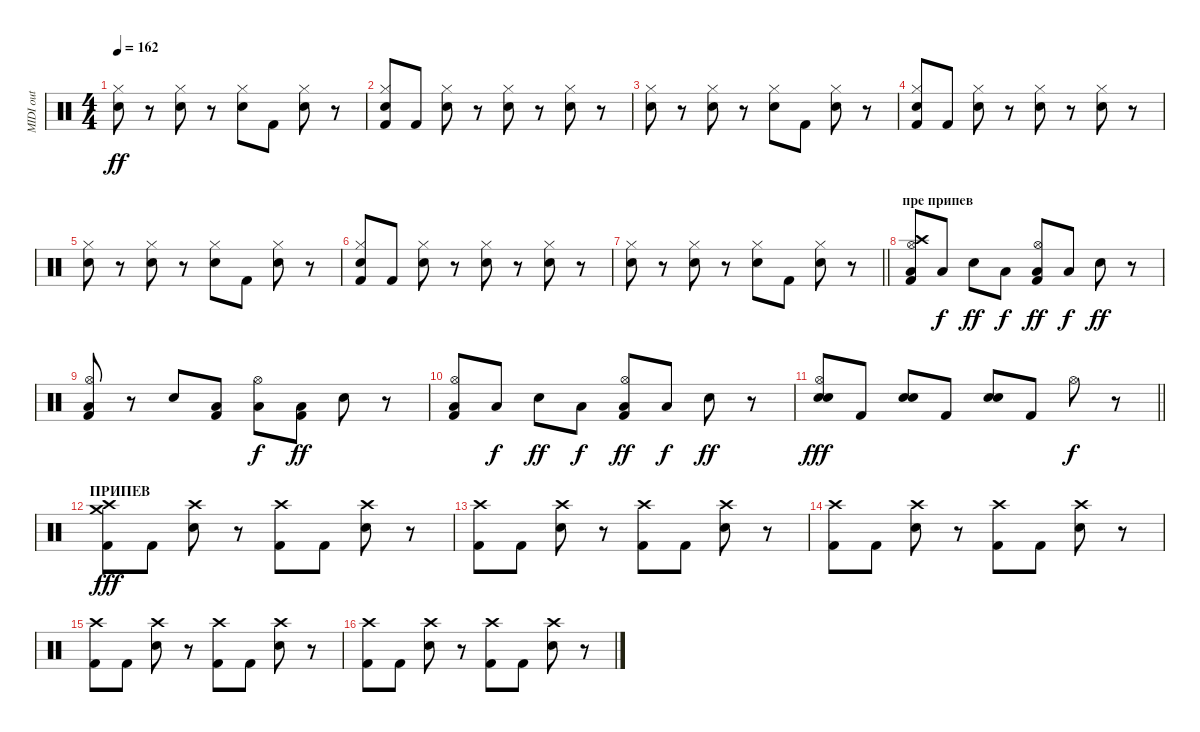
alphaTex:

\track ("MIDI out" "MIDI out") {instrument percussion}
\staff {score}
\articulation defaults
\ts (4 4)
\tempo 162
\clef neutral
\ks c
("Snare (hit) 2" "Hi-Hat (closed)").8{dy ff} r.8 ("Snare (hit) 2" "Hi-Hat (closed)").8 r.8 ("Snare (hit) 2" "Hi-Hat (closed)").8 "Kick (hit) 2".8 ("Snare (hit) 2" "Hi-Hat (closed)").8 r.8 |
("Snare (hit) 2" "Kick (hit) 2" "Hi-Hat (closed)").8 "Kick (hit) 2".8 ("Snare (hit) 2" "Hi-Hat (closed)").8 r.8 ("Snare (hit) 2" "Hi-Hat (closed)").8 r.8 ("Snare (hit) 2" "Hi-Hat (closed)").8 r.8 |
("Snare (hit) 2" "Hi-Hat (closed)").8 r.8 ("Snare (hit) 2" "Hi-Hat (closed)").8 r.8 ("Snare (hit) 2" "Hi-Hat (closed)").8 "Kick (hit) 2".8 ("Snare (hit) 2" "Hi-Hat (closed)").8 r.8 |
("Snare (hit) 2" "Kick (hit) 2" "Hi-Hat (closed)").8 "Kick (hit) 2".8 ("Snare (hit) 2" "Hi-Hat (closed)").8 r.8 ("Snare (hit) 2" "Hi-Hat (closed)").8 r.8 ("Snare (hit) 2" "Hi-Hat (closed)").8 r.8 |
("Snare (hit) 2" "Hi-Hat (closed)").8 r.8 ("Snare (hit) 2" "Hi-Hat (closed)").8 r.8 ("Snare (hit) 2" "Hi-Hat (closed)").8 "Kick (hit) 2".8 ("Snare (hit) 2" "Hi-Hat (closed)").8 r.8 |
("Snare (hit) 2" "Kick (hit) 2" "Hi-Hat (closed)").8 "Kick (hit) 2".8 ("Snare (hit) 2" "Hi-Hat (closed)").8 r.8 ("Snare (hit) 2" "Hi-Hat (closed)").8 r.8 ("Snare (hit) 2" "Hi-Hat (closed)").8 r.8 |
\barLineRight lightlight
("Snare (hit) 2" "Hi-Hat (closed)").8 r.8 ("Snare (hit) 2" "Hi-Hat (closed)").8 r.8 ("Snare (hit) 2" "Hi-Hat (closed)").8 "Kick (hit) 2".8 ("Snare (hit) 2" "Hi-Hat (closed)").8 r.8 |
\section ("" "пре припев")
("Crash high (hit)" "Hi-Hat (open)" "Low Floor Tom (hit)" "Kick (hit) 2").8 "Low Floor Tom (hit)".8{dy f} "Snare (hit) 2".8{dy ff} "Low Floor Tom (hit)".8{dy f} ("Hi-Hat (open)" "Low Floor Tom (hit)" "Kick (hit) 2").8{dy ff} "Low Floor Tom (hit)".8{dy f} "Snare (hit) 2".8{dy ff} r.8 |
("Hi-Hat (open)" "Kick (hit) 2" "Low Floor Tom (hit)").8 r.8 "Snare (hit) 2".8 ("Low Floor Tom (hit)" "Kick (hit) 2").8 ("Hi-Hat (open)" "Low Floor Tom (hit)").8{dy f} ("Low Floor Tom (hit)" "Kick (hit) 2").8{dy ff} "Snare (hit) 2".8 r.8 |
("Hi-Hat (open)" "Low Floor Tom (hit)" "Kick (hit) 2").8 "Low Floor Tom (hit)".8{dy f} "Snare (hit) 2".8{dy ff} "Low Floor Tom (hit)".8{dy f} ("Hi-Hat (open)" "Low Floor Tom (hit)" "Kick (hit) 2").8{dy ff} "Low Floor Tom (hit)".8{dy f} "Snare (hit) 2".8{dy ff} r.8 |
\barLineRight lightlight
("Electric Snare (hit)" "Snare (hit) 2" "Hi-Hat (open)").8{dy fff} "Kick (hit) 2".8 ("Electric Snare (hit)" "Snare (hit) 2").8 "Kick (hit) 2".8 ("Electric Snare (hit)" "Snare (hit) 2").8 "Kick (hit) 2".8 "Hi-Hat (open)".8{dy f} r.8 |
\section ("" "ПРИПЕВ")
("Crash medium (hit)" "Kick (hit) 2" "Crash high (hit)").8{dy fff} "Kick (hit) 2".8 ("Crash high (hit)" "Snare (hit) 2").8 r.8 ("Crash high (hit)" "Kick (hit) 2").8 "Kick (hit) 2".8 ("Crash high (hit)" "Snare (hit) 2").8 r.8 |
("Crash high (hit)" "Kick (hit) 2").8 "Kick (hit) 2".8 ("Crash high (hit)" "Snare (hit) 2").8 r.8 ("Crash high (hit)" "Kick (hit) 2").8 "Kick (hit) 2".8 ("Crash high (hit)" "Snare (hit) 2").8 r.8 |
("Kick (hit) 2" "Crash high (hit)").8 "Kick (hit) 2".8 ("Crash high (hit)" "Snare (hit) 2").8 r.8 ("Crash high (hit)" "Kick (hit) 2").8 "Kick (hit) 2".8 ("Crash high (hit)" "Snare (hit) 2").8 r.8 |
("Crash high (hit)" "Kick (hit) 2").8 "Kick (hit) 2".8 ("Crash high (hit)" "Snare (hit) 2").8 r.8 ("Crash high (hit)" "Kick (hit) 2").8 "Kick (hit) 2".8 ("Crash high (hit)" "Snare (hit) 2").8 r.8 |
("Kick (hit) 2" "Crash high (hit)").8 "Kick (hit) 2".8 ("Crash high (hit)" "Snare (hit) 2").8 r.8 ("Crash high (hit)" "Kick (hit) 2").8 "Kick (hit) 2".8 ("Crash high (hit)" "Snare (hit) 2").8 r.8
